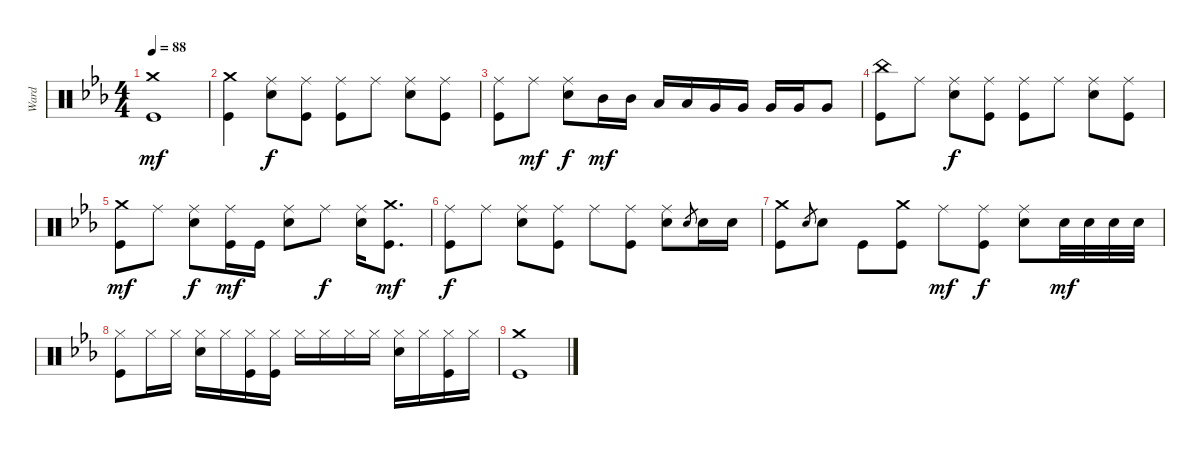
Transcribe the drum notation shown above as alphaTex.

\track ("Ward" "Ward") {instrument percussion}
\staff {score}
\articulation defaults
\ts (4 4)
\tempo 88
\clef neutral
\ks cminor
("Crash medium (hit)" "Kick (hit)").1{dy mf} |
("Crash medium (hit)" "Kick (hit)").4 ("Ride (middle)" "Snare (hit) 2").8{dy f} ("Ride (middle)" "Kick (hit)").8 ("Ride (middle)" "Kick (hit)").8 "Ride (middle)".8 ("Ride (middle)" "Snare (hit) 2").8 ("Ride (middle)" "Kick (hit)").8 |
("Ride (middle)" "Kick (hit)").8 "Ride (middle)".8{dy mf} ("Ride (middle)" "Snare (hit) 2").8{dy f} "Mid Tom (hit)".16{dy mf} "Mid Tom (hit)".16 "Low Tom (hit)".16 "Low Tom (hit)".16 "Very Low Tom (hit)".16 "Very Low Tom (hit)".16 "Very Low Tom (hit)".16 "Very Low Tom (hit)".16 "Very Low Tom (hit)".8 |
("China (hit)" "Kick (hit)").8 "Ride (middle)".8 ("Ride (middle)" "Snare (hit) 2").8{dy f} ("Ride (middle)" "Kick (hit)").8 ("Ride (middle)" "Kick (hit)").8 "Ride (middle)".8 ("Ride (middle)" "Snare (hit) 2").8 ("Ride (middle)" "Kick (hit)").8 |
("Crash medium (hit)" "Kick (hit)").8{dy mf} "Ride (middle)".8 ("Ride (middle)" "Snare (hit) 2").8{dy f} ("Ride (middle)" "Kick (hit)").16{dy mf} "Kick (hit)".16 ("Ride (middle)" "Snare (hit) 2").8 "Ride (middle)".8{dy f} ("Ride (middle)" "Snare (hit) 2").16 ("Crash medium (hit)" "Kick (hit)").8{d dy mf} |
("Ride (middle)" "Kick (hit)").8{dy f} "Ride (middle)".8 ("Ride (middle)" "Snare (hit) 2").8 ("Ride (middle)" "Kick (hit)").8 "Ride (middle)".8 ("Ride (middle)" "Kick (hit)").8 ("Ride (middle)" "Snare (hit) 2").8 "Snare (hit) 2".8{gr} "Snare (hit) 2".16 "Snare (hit) 2".16 |
("Crash medium (hit)" "Kick (hit)").8 "Snare (hit) 2".8{gr} "Snare (hit) 2".8 "Kick (hit)".8 ("Crash medium (hit)" "Kick (hit)").8 "Ride (middle)".8{dy mf} ("Ride (middle)" "Kick (hit)").8{dy f} ("Ride (middle)" "Snare (hit) 2").8 "Snare (hit) 2".32{dy mf} "Snare (hit) 2".32 "Snare (hit) 2".32 "Snare (hit) 2".32 |
("Hi-Hat (closed)" "Kick (hit)").8 "Hi-Hat (closed)".16 "Hi-Hat (closed)".16 ("Hi-Hat (closed)" "Snare (hit) 2").16 "Hi-Hat (closed)".16 ("Hi-Hat (closed)" "Kick (hit)").16 ("Hi-Hat (closed)" "Kick (hit)").16 "Hi-Hat (closed)".16 "Hi-Hat (closed)".16 "Hi-Hat (closed)".16 "Hi-Hat (closed)".16 ("Hi-Hat (closed)" "Snare (hit) 2").16 "Hi-Hat (closed)".16 ("Hi-Hat (closed)" "Kick (hit)").16 "Hi-Hat (closed)".16 |
("Crash medium (hit)" "Kick (hit)").1
